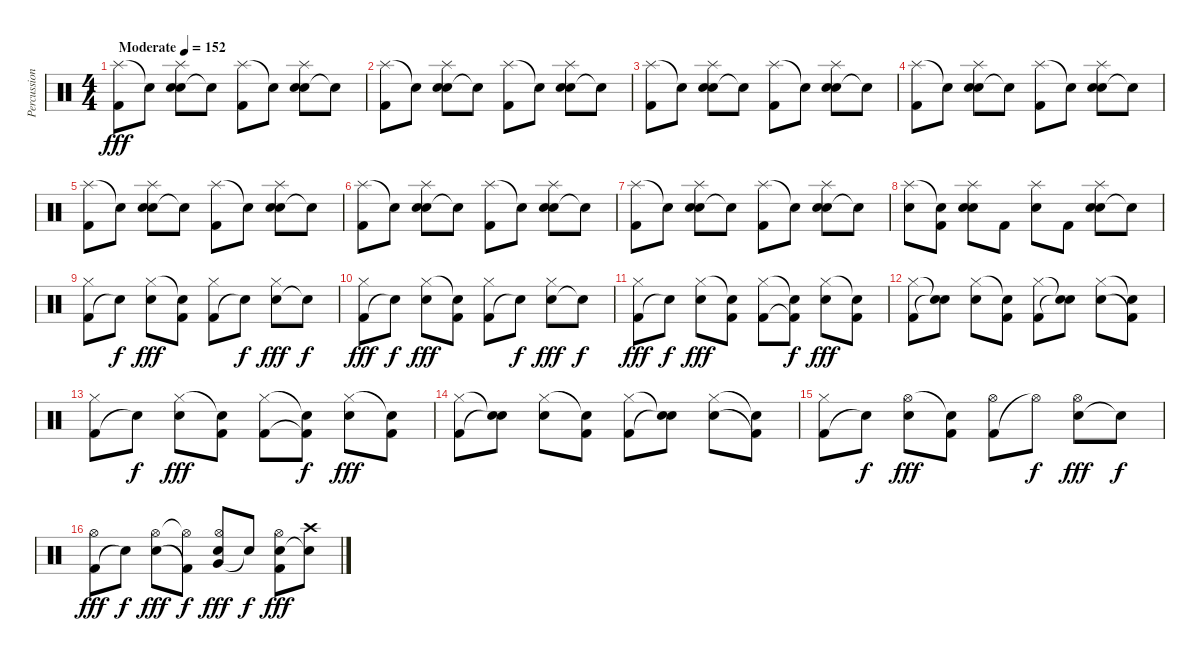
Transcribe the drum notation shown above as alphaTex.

\track ("Percussion" "Percussion") {instrument percussion}
\staff {score}
\articulation defaults
\ts (4 4)
\tempo (152 "Moderate")
\clef neutral
\ks c
("Splash (hit)" "Kick (hit) 2").8{dy fff} "Snare (hit)"{t}.8 ("Hand Clap (hit)" "Splash (hit)" "Electric Snare (hit)").8 "Snare (hit)"{t}.8 ("Splash (hit)" "Kick (hit) 2").8 "Snare (hit)"{t}.8 ("Hand Clap (hit)" "Splash (hit)" "Electric Snare (hit)").8 "Snare (hit)"{t}.8 |
("Splash (hit)" "Kick (hit) 2").8 "Snare (hit)"{t}.8 ("Hand Clap (hit)" "Splash (hit)" "Electric Snare (hit)").8 "Snare (hit)"{t}.8 ("Splash (hit)" "Kick (hit) 2").8 "Snare (hit)"{t}.8 ("Hand Clap (hit)" "Splash (hit)" "Electric Snare (hit)").8 "Snare (hit)"{t}.8 |
("Splash (hit)" "Kick (hit) 2").8 "Snare (hit)"{t}.8 ("Hand Clap (hit)" "Splash (hit)" "Electric Snare (hit)").8 "Snare (hit)"{t}.8 ("Splash (hit)" "Kick (hit) 2").8 "Snare (hit)"{t}.8 ("Hand Clap (hit)" "Splash (hit)" "Electric Snare (hit)").8 "Snare (hit)"{t}.8 |
("Splash (hit)" "Kick (hit) 2").8 "Snare (hit)"{t}.8 ("Hand Clap (hit)" "Splash (hit)" "Electric Snare (hit)").8 "Snare (hit)"{t}.8 ("Splash (hit)" "Kick (hit) 2").8 "Snare (hit)"{t}.8 ("Hand Clap (hit)" "Splash (hit)" "Electric Snare (hit)").8 "Snare (hit)"{t}.8 |
("Splash (hit)" "Kick (hit) 2").8 "Snare (hit)"{t}.8 ("Hand Clap (hit)" "Splash (hit)" "Electric Snare (hit)").8 "Snare (hit)"{t}.8 ("Splash (hit)" "Kick (hit) 2").8 "Snare (hit)"{t}.8 ("Hand Clap (hit)" "Splash (hit)" "Electric Snare (hit)").8 "Snare (hit)"{t}.8 |
("Splash (hit)" "Kick (hit) 2").8 "Snare (hit)"{t}.8 ("Hand Clap (hit)" "Splash (hit)" "Electric Snare (hit)").8 "Snare (hit)"{t}.8 ("Splash (hit)" "Kick (hit) 2").8 "Snare (hit)"{t}.8 ("Hand Clap (hit)" "Splash (hit)" "Electric Snare (hit)").8 "Snare (hit)"{t}.8 |
("Splash (hit)" "Kick (hit) 2").8 "Snare (hit)"{t}.8 ("Hand Clap (hit)" "Splash (hit)" "Electric Snare (hit)").8 "Snare (hit)"{t}.8 ("Splash (hit)" "Kick (hit) 2").8 "Snare (hit)"{t}.8 ("Hand Clap (hit)" "Splash (hit)" "Electric Snare (hit)").8 "Snare (hit)"{t}.8 |
("Splash (hit)" "Electric Snare (hit)").8 ("Snare (hit)"{t} "Kick (hit) 2").8 ("Hand Clap (hit)" "Splash (hit)" "Electric Snare (hit)").8 "Kick (hit) 2".8 ("Splash (hit)" "Electric Snare (hit)").8 "Kick (hit) 2".8 ("Hand Clap (hit)" "Splash (hit)" "Electric Snare (hit)").8 "Snare (hit)"{t}.8 |
("Kick (hit) 2" "Hi-Hat (closed)").8 "Snare (hit)"{t}.8{dy f} ("Electric Snare (hit)" "Hi-Hat (closed)").8{dy fff} ("Kick (hit) 2" "Snare (hit)"{t}).8 ("Kick (hit) 2" "Hi-Hat (closed)").8 "Snare (hit)"{t}.8{dy f} ("Electric Snare (hit)" "Hi-Hat (closed)").8{dy fff} "Snare (hit)"{t}.8{dy f} |
("Kick (hit) 2" "Hi-Hat (closed)").8{dy fff} "Snare (hit)"{t}.8{dy f} ("Electric Snare (hit)" "Hi-Hat (closed)").8{dy fff} ("Kick (hit) 2" "Snare (hit)"{t}).8 ("Kick (hit) 2" "Hi-Hat (closed)").8 "Snare (hit)"{t}.8{dy f} ("Electric Snare (hit)" "Hi-Hat (closed)").8{dy fff} "Snare (hit)"{t}.8{dy f} |
("Kick (hit) 2" "Hi-Hat (closed)").8{dy fff} "Snare (hit)"{t}.8{dy f} ("Electric Snare (hit)" "Hi-Hat (closed)").8{dy fff} ("Kick (hit) 2" "Snare (hit)"{t}).8 ("Kick (hit) 2" "Hi-Hat (closed)").8 ("Kick (hit) 2"{t} "Snare (hit)"{t}).8{dy f} ("Electric Snare (hit)" "Hi-Hat (closed)").8{dy fff} ("Kick (hit) 2" "Snare (hit)"{t}).8 |
("Kick (hit) 2" "Hi-Hat (closed)").8 ("Electric Snare (hit)"{t} "Snare (hit)"{t}).8 ("Electric Snare (hit)" "Hi-Hat (closed)").8 ("Kick (hit) 2" "Snare (hit)"{t}).8 ("Kick (hit) 2" "Hi-Hat (closed)").8 ("Electric Snare (hit)"{t} "Snare (hit)"{t}).8 ("Electric Snare (hit)" "Hi-Hat (closed)").8 ("Kick (hit) 2"{t} "Snare (hit)"{t}).8 |
("Kick (hit) 2" "Hi-Hat (closed)").8 "Snare (hit)"{t}.8{dy f} ("Electric Snare (hit)" "Hi-Hat (closed)").8{dy fff} ("Kick (hit) 2" "Snare (hit)"{t}).8 ("Kick (hit) 2" "Hi-Hat (closed)").8 ("Kick (hit) 2"{t} "Snare (hit)"{t}).8{dy f} ("Electric Snare (hit)" "Hi-Hat (closed)").8{dy fff} ("Kick (hit) 2" "Snare (hit)"{t}).8 |
("Kick (hit) 2" "Hi-Hat (closed)").8 ("Electric Snare (hit)"{t} "Snare (hit)"{t}).8 ("Electric Snare (hit)" "Hi-Hat (closed)").8 ("Kick (hit) 2" "Snare (hit)"{t}).8 ("Kick (hit) 2" "Hi-Hat (closed)").8 ("Electric Snare (hit)"{t} "Snare (hit)"{t}).8 ("Electric Snare (hit)" "Hi-Hat (closed)").8 ("Kick (hit) 2"{t} "Snare (hit)"{t}).8 |
("Kick (hit) 2" "Hi-Hat (closed)").8 "Snare (hit)"{t}.8{dy f} ("Electric Snare (hit)" "Hi-Hat (open)").8{dy fff} ("Kick (hit) 2" "Snare (hit)"{t}).8 ("Kick (hit) 2" "Hi-Hat (open)").8 "Hi-Hat (open)"{t}.8{dy f} ("Electric Snare (hit)" "Hi-Hat (open)").8{dy fff} "Snare (hit)"{t}.8{dy f} |
("Kick (hit) 2" "Hi-Hat (open)").8{dy fff} "Snare (hit)"{t}.8{dy f} ("Electric Snare (hit)" "Hi-Hat (open)").8{dy fff} ("Kick (hit) 2"{t} "Hi-Hat (open)"{t}).8{dy f} ("Very Low Tom (hit)" "Electric Snare (hit)" "Hi-Hat (open)").8{dy fff} "Snare (hit)"{t}.8{dy f} ("Kick (hit) 2" "Electric Snare (hit)" "Hi-Hat (open)").8{dy fff} ("Crash high (hit)" "Snare (hit)"{t}).8
